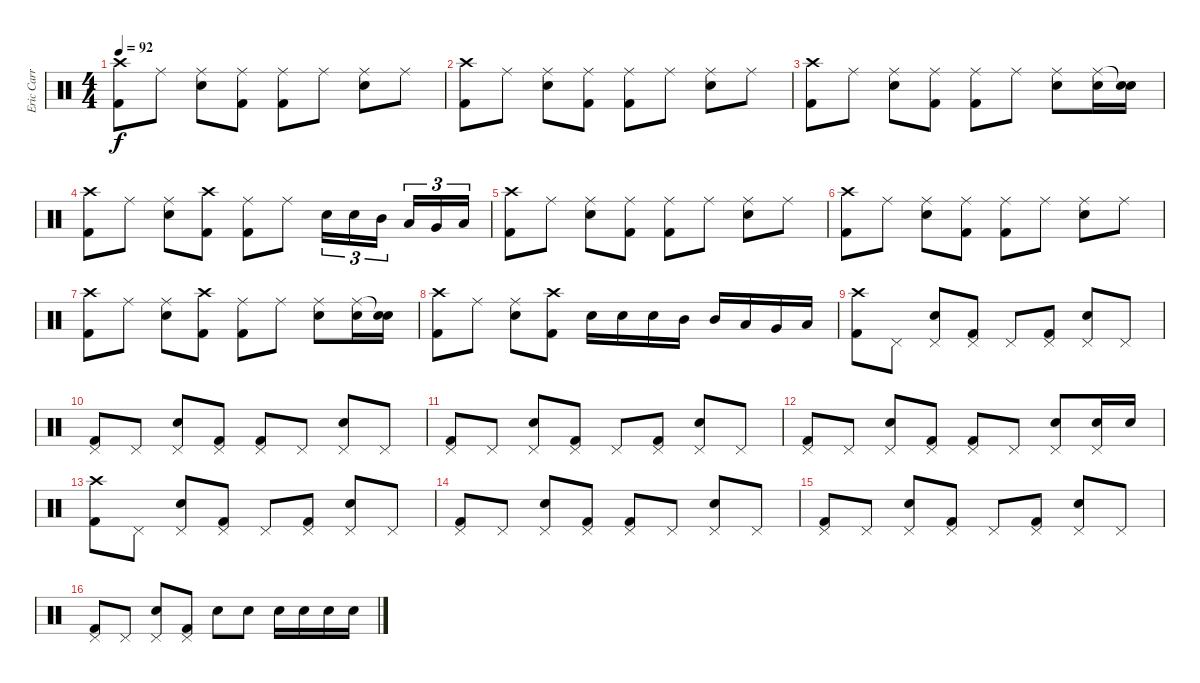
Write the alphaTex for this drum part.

\track ("Eric Carr" "Eric Carr") {instrument percussion}
\staff {score}
\articulation defaults
\ts (4 4)
\tempo 92
\clef neutral
\ks c
("Kick (hit) 2" "Crash high (hit)").8{dy f} "Ride (middle)".8 ("Snare (hit) 2" "Ride (middle)").8 ("Kick (hit) 2" "Ride (middle)").8 ("Kick (hit) 2" "Ride (middle)").8 "Ride (middle)".8 ("Snare (hit) 2" "Ride (middle)").8 "Ride (middle)".8 |
("Kick (hit) 2" "Crash high (hit)").8 "Ride (middle)".8 ("Snare (hit) 2" "Ride (middle)").8 ("Kick (hit) 2" "Ride (middle)").8 ("Kick (hit) 2" "Ride (middle)").8 "Ride (middle)".8 ("Snare (hit) 2" "Ride (middle)").8 "Ride (middle)".8 |
("Kick (hit) 2" "Crash high (hit)").8 "Ride (middle)".8 ("Snare (hit) 2" "Ride (middle)").8 ("Kick (hit) 2" "Ride (middle)").8 ("Kick (hit) 2" "Ride (middle)").8 "Ride (middle)".8 ("Snare (hit) 2" "Ride (middle)").8 ("Snare (hit) 2" "Ride (middle)").16 ("Snare (hit) 2" "Snare (hit)"{t}).16 |
("Kick (hit) 2" "Crash high (hit)").8 "Ride (middle)".8 ("Snare (hit) 2" "Ride (middle)").8 ("Kick (hit) 2" "Crash high (hit)").8 ("Kick (hit) 2" "Ride (middle)").8 "Ride (middle)".8 "Snare (hit) 2".16{tu (3 2)} "Snare (hit) 2".16{tu (3 2)} "Mid Tom (hit)".16{tu (3 2)} "Low Tom (hit)".16{tu (3 2)} "Very Low Tom (hit)".16{tu (3 2)} "Low Floor Tom (hit)".16{tu (3 2)} |
("Kick (hit) 2" "Crash high (hit)").8 "Ride (middle)".8 ("Snare (hit) 2" "Ride (middle)").8 ("Kick (hit) 2" "Ride (middle)").8 ("Kick (hit) 2" "Ride (middle)").8 "Ride (middle)".8 ("Snare (hit) 2" "Ride (middle)").8 "Ride (middle)".8 |
("Kick (hit) 2" "Crash high (hit)").8 "Ride (middle)".8 ("Snare (hit) 2" "Ride (middle)").8 ("Kick (hit) 2" "Ride (middle)").8 ("Kick (hit) 2" "Ride (middle)").8 "Ride (middle)".8 ("Snare (hit) 2" "Ride (middle)").8 "Ride (middle)".8 |
("Kick (hit) 2" "Crash high (hit)").8 "Ride (middle)".8 ("Snare (hit) 2" "Ride (middle)").8 ("Kick (hit) 2" "Crash high (hit)").8 ("Kick (hit) 2" "Ride (middle)").8 "Ride (middle)".8 ("Snare (hit) 2" "Ride (middle)").8 ("Snare (hit) 2" "Ride (middle)").16 ("Snare (hit) 2" "Snare (hit)"{t}).16 |
("Kick (hit) 2" "Crash high (hit)").8 "Ride (middle)".8 ("Snare (hit) 2" "Ride (middle)").8 ("Kick (hit) 2" "Crash high (hit)").8 "Snare (hit) 2".16 "Snare (hit) 2".16 "Snare (hit) 2".16 "Mid Tom (hit)".16 "Mid Tom (hit)".16 "Low Tom (hit)".16 "Very Low Tom (hit)".16 "Low Floor Tom (hit)".16 |
("Kick (hit) 2" "Crash high (hit)").8 "Pedal Hi-Hat (hit)".8 ("Snare (hit) 2" "Pedal Hi-Hat (hit)").8 ("Kick (hit) 2" "Pedal Hi-Hat (hit)").8 "Pedal Hi-Hat (hit)".8 ("Kick (hit) 2" "Pedal Hi-Hat (hit)").8 ("Snare (hit) 2" "Pedal Hi-Hat (hit)").8 "Pedal Hi-Hat (hit)".8 |
("Kick (hit) 2" "Pedal Hi-Hat (hit)").8 "Pedal Hi-Hat (hit)".8 ("Snare (hit) 2" "Pedal Hi-Hat (hit)").8 ("Kick (hit) 2" "Pedal Hi-Hat (hit)").8 ("Kick (hit) 2" "Pedal Hi-Hat (hit)").8 "Pedal Hi-Hat (hit)".8 ("Snare (hit) 2" "Pedal Hi-Hat (hit)").8 "Pedal Hi-Hat (hit)".8 |
("Kick (hit) 2" "Pedal Hi-Hat (hit)").8 "Pedal Hi-Hat (hit)".8 ("Snare (hit) 2" "Pedal Hi-Hat (hit)").8 ("Kick (hit) 2" "Pedal Hi-Hat (hit)").8 "Pedal Hi-Hat (hit)".8 ("Kick (hit) 2" "Pedal Hi-Hat (hit)").8 ("Snare (hit) 2" "Pedal Hi-Hat (hit)").8 "Pedal Hi-Hat (hit)".8 |
("Kick (hit) 2" "Pedal Hi-Hat (hit)").8 "Pedal Hi-Hat (hit)".8 ("Snare (hit) 2" "Pedal Hi-Hat (hit)").8 ("Kick (hit) 2" "Pedal Hi-Hat (hit)").8 ("Kick (hit) 2" "Pedal Hi-Hat (hit)").8 "Pedal Hi-Hat (hit)".8 ("Snare (hit) 2" "Pedal Hi-Hat (hit)").8 ("Snare (hit) 2" "Pedal Hi-Hat (hit)").16 "Snare (hit) 2".16 |
("Kick (hit) 2" "Crash high (hit)").8 "Pedal Hi-Hat (hit)".8 ("Snare (hit) 2" "Pedal Hi-Hat (hit)").8 ("Kick (hit) 2" "Pedal Hi-Hat (hit)").8 "Pedal Hi-Hat (hit)".8 ("Kick (hit) 2" "Pedal Hi-Hat (hit)").8 ("Snare (hit) 2" "Pedal Hi-Hat (hit)").8 "Pedal Hi-Hat (hit)".8 |
("Kick (hit) 2" "Pedal Hi-Hat (hit)").8 "Pedal Hi-Hat (hit)".8 ("Snare (hit) 2" "Pedal Hi-Hat (hit)").8 ("Kick (hit) 2" "Pedal Hi-Hat (hit)").8 ("Kick (hit) 2" "Pedal Hi-Hat (hit)").8 "Pedal Hi-Hat (hit)".8 ("Snare (hit) 2" "Pedal Hi-Hat (hit)").8 "Pedal Hi-Hat (hit)".8 |
("Kick (hit) 2" "Pedal Hi-Hat (hit)").8 "Pedal Hi-Hat (hit)".8 ("Snare (hit) 2" "Pedal Hi-Hat (hit)").8 ("Kick (hit) 2" "Pedal Hi-Hat (hit)").8 "Pedal Hi-Hat (hit)".8 ("Kick (hit) 2" "Pedal Hi-Hat (hit)").8 ("Snare (hit) 2" "Pedal Hi-Hat (hit)").8 "Pedal Hi-Hat (hit)".8 |
("Kick (hit) 2" "Pedal Hi-Hat (hit)").8 "Pedal Hi-Hat (hit)".8 ("Snare (hit) 2" "Pedal Hi-Hat (hit)").8 ("Kick (hit) 2" "Pedal Hi-Hat (hit)").8 "Snare (hit) 2".8 "Snare (hit) 2".8 "Snare (hit) 2".16 "Snare (hit) 2".16 "Snare (hit) 2".16 "Snare (hit) 2".16
